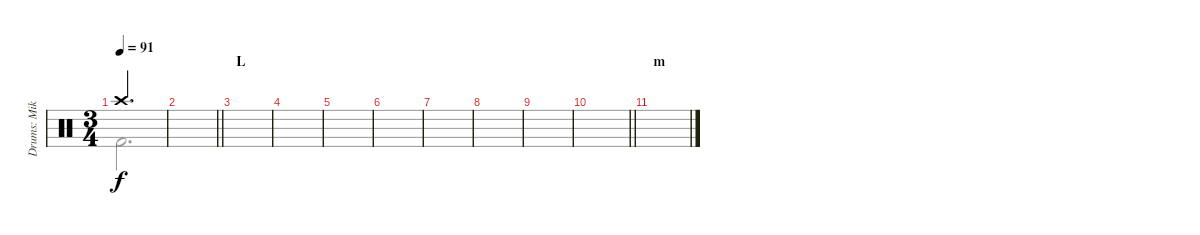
\track ("Drums: Mike" "Drums: Mik") {instrument percussion}
\staff {score}
\articulation defaults
\voice
\ts (3 4)
\tempo 91
\clef neutral
\ks c "Crash high (hit)".2{d dy f}
|
\barLineRight lightlight
|
\section ("" "L")
|
|
|
|
|
|
|
\barLineRight lightlight
|
\section ("" "m")
|
|
|
\voice
\clef neutral
\ks c "Kick (hit) 2".2{d dy f}
|
\barLineRight lightlight
|
|
|
|
|
|
|
|
\barLineRight lightlight
|
|
|
|
